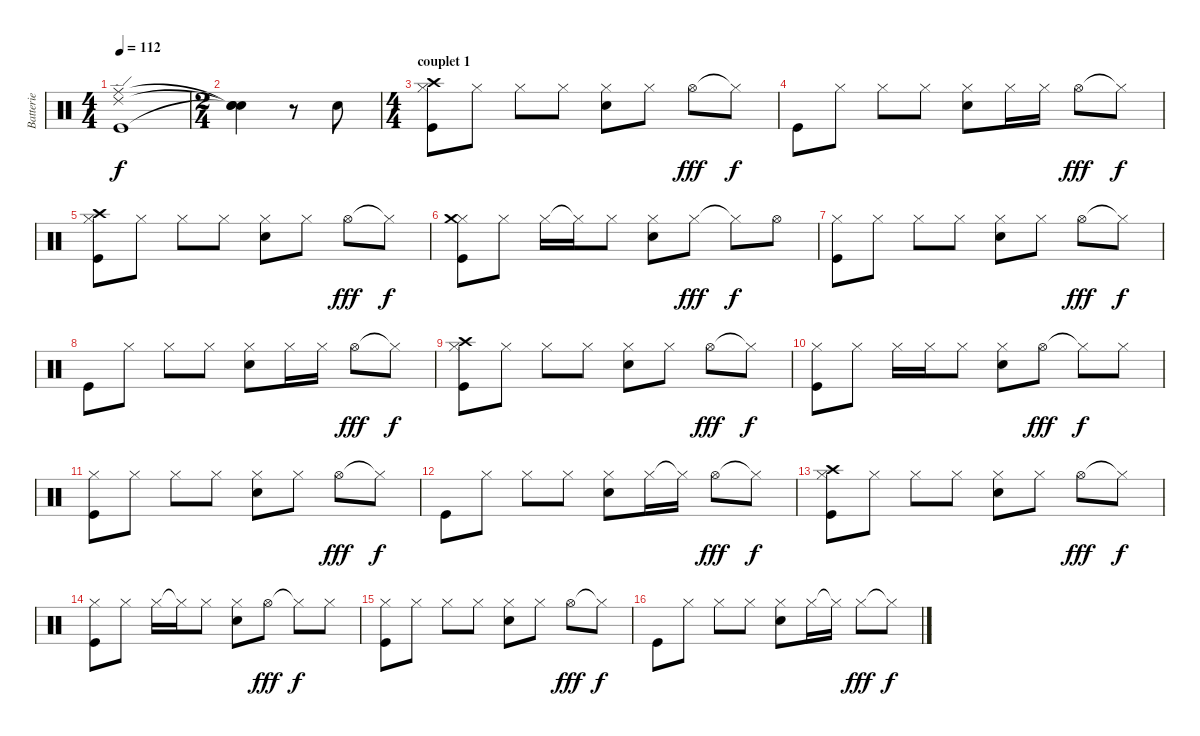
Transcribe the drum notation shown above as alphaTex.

\track ("Batterie" "Batterie") {instrument percussion}
\staff {score}
\articulation defaults
\ts (4 4)
\tempo 112
\clef neutral
\ks c
("Ride (middle)" "Ride (edge) 2" "Kick (hit)").1{dy f} |
\ts (2 4)
("Snare (hit)"{t} "Snare (hit)"{t} "Snare (hit)"{t}).4 r.8 "Snare (hit) 2".8 |
\ts (4 4)
\section ("" "couplet 1")
("Hi-Hat (closed)" "Crash high (hit)" "Kick (hit)").8 "Hi-Hat (closed)".8 "Hi-Hat (closed)".8 "Hi-Hat (closed)".8 ("Hi-Hat (closed)" "Snare (hit) 2").8 "Hi-Hat (closed)".8 "Hi-Hat (open)".8{dy fff} "Hi-Hat (closed)"{t}.8{dy f} |
"Kick (hit)".8 "Hi-Hat (closed)".8 "Hi-Hat (closed)".8 "Hi-Hat (closed)".8 ("Hi-Hat (closed)" "Snare (hit) 2").8 "Hi-Hat (closed)".16 "Hi-Hat (closed)".16 "Hi-Hat (open)".8{dy fff} "Hi-Hat (closed)"{t}.8{dy f} |
("Hi-Hat (closed)" "Crash high (hit)" "Kick (hit)").8 "Hi-Hat (closed)".8 "Hi-Hat (closed)".8 "Hi-Hat (closed)".8 ("Hi-Hat (closed)" "Snare (hit) 2").8 "Hi-Hat (closed)".8 "Hi-Hat (open)".8{dy fff} "Hi-Hat (closed)"{t}.8{dy f} |
("Hi-Hat (closed)" "Crash medium (hit)" "Kick (hit)").8 "Hi-Hat (closed)".8 "Hi-Hat (closed)".16 "Hi-Hat (closed)"{t}.16 "Hi-Hat (closed)".8 ("Hi-Hat (closed)" "Snare (hit) 2").8 "Hi-Hat (closed)".8{dy fff} "Hi-Hat (closed)"{t}.8{dy f} "Hi-Hat (open)".8 |
("Hi-Hat (closed)" "Kick (hit)").8 "Hi-Hat (closed)".8 "Hi-Hat (closed)".8 "Hi-Hat (closed)".8 ("Hi-Hat (closed)" "Snare (hit) 2").8 "Hi-Hat (closed)".8 "Hi-Hat (open)".8{dy fff} "Hi-Hat (closed)"{t}.8{dy f} |
"Kick (hit)".8 "Hi-Hat (closed)".8 "Hi-Hat (closed)".8 "Hi-Hat (closed)".8 ("Hi-Hat (closed)" "Snare (hit) 2").8 "Hi-Hat (closed)".16 "Hi-Hat (closed)".16 "Hi-Hat (open)".8{dy fff} "Hi-Hat (closed)"{t}.8{dy f} |
("Hi-Hat (closed)" "Crash high (hit)" "Kick (hit)").8 "Hi-Hat (closed)".8 "Hi-Hat (closed)".8 "Hi-Hat (closed)".8 ("Hi-Hat (closed)" "Snare (hit) 2").8 "Hi-Hat (closed)".8 "Hi-Hat (open)".8{dy fff} "Hi-Hat (closed)"{t}.8{dy f} |
("Hi-Hat (closed)" "Kick (hit)").8 "Hi-Hat (closed)".8 "Hi-Hat (closed)".16 "Hi-Hat (closed)".16 "Hi-Hat (closed)".8 ("Hi-Hat (closed)" "Snare (hit) 2").8 "Hi-Hat (open)".8{dy fff} "Hi-Hat (closed)"{t}.8{dy f} "Hi-Hat (closed)".8 |
("Hi-Hat (closed)" "Kick (hit)").8 "Hi-Hat (closed)".8 "Hi-Hat (closed)".8 "Hi-Hat (closed)".8 ("Hi-Hat (closed)" "Snare (hit) 2").8 "Hi-Hat (closed)".8 "Hi-Hat (open)".8{dy fff} "Hi-Hat (closed)"{t}.8{dy f} |
"Kick (hit)".8 "Hi-Hat (closed)".8 "Hi-Hat (closed)".8 "Hi-Hat (closed)".8 ("Hi-Hat (closed)" "Snare (hit) 2").8 "Hi-Hat (closed)".16 "Hi-Hat (closed)"{t}.16 "Hi-Hat (open)".8{dy fff} "Hi-Hat (closed)"{t}.8{dy f} |
("Hi-Hat (closed)" "Crash high (hit)" "Kick (hit)").8 "Hi-Hat (closed)".8 "Hi-Hat (closed)".8 "Hi-Hat (closed)".8 ("Hi-Hat (closed)" "Snare (hit) 2").8 "Hi-Hat (closed)".8 "Hi-Hat (open)".8{dy fff} "Hi-Hat (closed)"{t}.8{dy f} |
("Hi-Hat (closed)" "Kick (hit)").8 "Hi-Hat (closed)".8 "Hi-Hat (closed)".16 "Hi-Hat (closed)"{t}.16 "Hi-Hat (closed)".8 ("Hi-Hat (closed)" "Snare (hit) 2").8 "Hi-Hat (open)".8{dy fff} "Hi-Hat (closed)"{t}.8{dy f} "Hi-Hat (closed)".8 |
("Hi-Hat (closed)" "Kick (hit)").8 "Hi-Hat (closed)".8 "Hi-Hat (closed)".8 "Hi-Hat (closed)".8 ("Hi-Hat (closed)" "Snare (hit) 2").8 "Hi-Hat (closed)".8 "Hi-Hat (open)".8{dy fff} "Hi-Hat (closed)"{t}.8{dy f} |
"Kick (hit)".8 "Hi-Hat (closed)".8 "Hi-Hat (closed)".8 "Hi-Hat (closed)".8 ("Hi-Hat (closed)" "Snare (hit) 2").8 "Hi-Hat (closed)".16 "Hi-Hat (closed)"{t}.16 "Hi-Hat (closed)".8{dy fff} "Hi-Hat (closed)"{t}.8{dy f}
